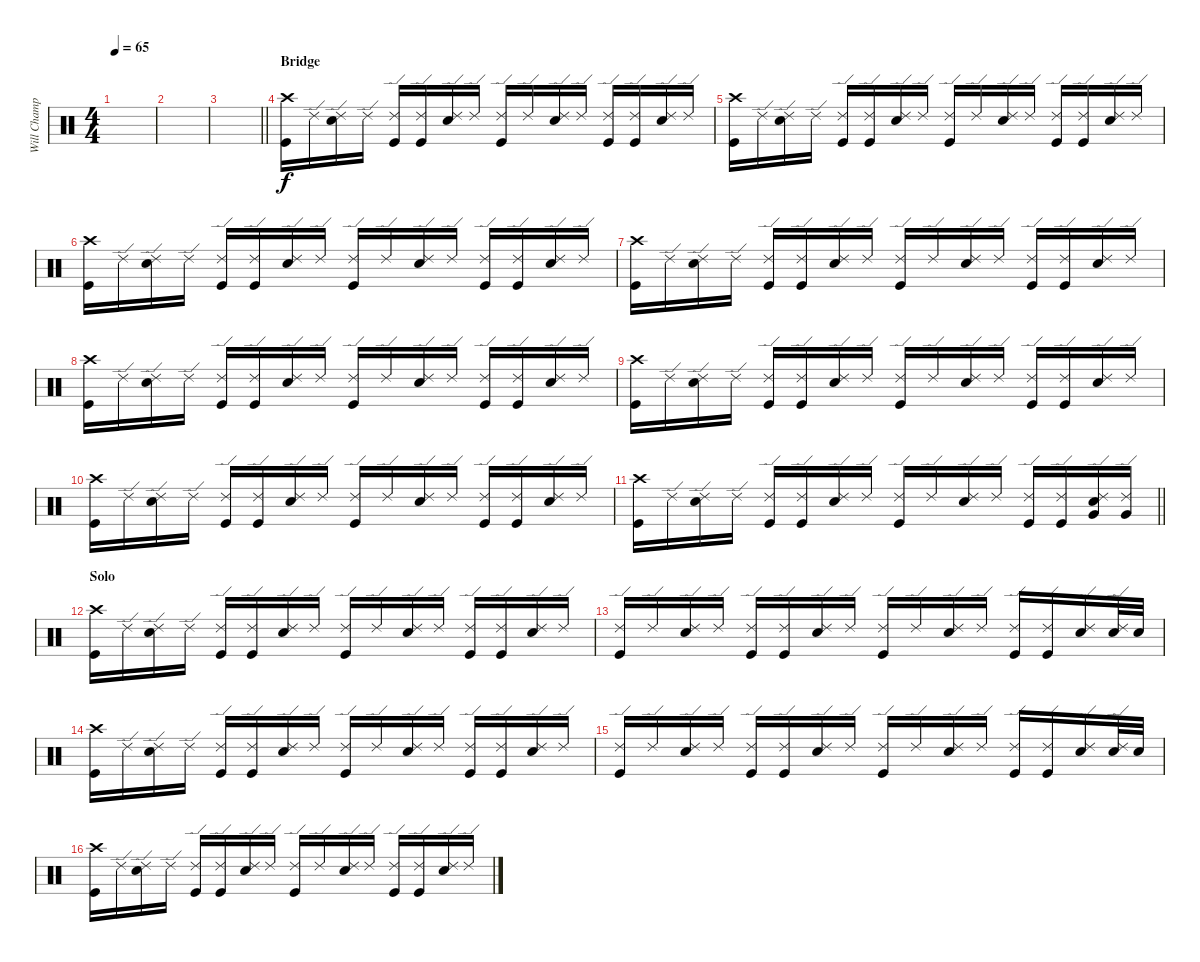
\track ("Will Champion-Drums" "Will Champ") {instrument percussion}
\staff {score}
\articulation defaults
\ts (4 4)
\tempo 65
\clef neutral
\ks c
|
|
\barLineRight lightlight
|
\section ("" "Bridge")
("Crash high (hit)" "Kick (hit)").16 "Ride (edge) 2".16 ("Ride (edge) 2" "Snare (hit) 2").16 "Ride (edge) 2".16 ("Ride (edge) 2" "Kick (hit)").16 ("Ride (edge) 2" "Kick (hit)").16 ("Ride (edge) 2" "Snare (hit) 2").16 "Ride (edge) 2".16 ("Ride (edge) 2" "Kick (hit)").16 "Ride (edge) 2".16 ("Ride (edge) 2" "Snare (hit) 2").16 "Ride (edge) 2".16 ("Ride (edge) 2" "Kick (hit)").16 ("Ride (edge) 2" "Kick (hit)").16 ("Ride (edge) 2" "Snare (hit) 2").16 "Ride (edge) 2".16 |
("Crash high (hit)" "Kick (hit)").16 "Ride (edge) 2".16 ("Ride (edge) 2" "Snare (hit) 2").16 "Ride (edge) 2".16 ("Ride (edge) 2" "Kick (hit)").16 ("Ride (edge) 2" "Kick (hit)").16 ("Ride (edge) 2" "Snare (hit) 2").16 "Ride (edge) 2".16 ("Ride (edge) 2" "Kick (hit)").16 "Ride (edge) 2".16 ("Ride (edge) 2" "Snare (hit) 2").16 "Ride (edge) 2".16 ("Ride (edge) 2" "Kick (hit)").16 ("Ride (edge) 2" "Kick (hit)").16 ("Ride (edge) 2" "Snare (hit) 2").16 "Ride (edge) 2".16 |
("Crash high (hit)" "Kick (hit)").16 "Ride (edge) 2".16 ("Ride (edge) 2" "Snare (hit) 2").16 "Ride (edge) 2".16 ("Ride (edge) 2" "Kick (hit)").16 ("Ride (edge) 2" "Kick (hit)").16 ("Ride (edge) 2" "Snare (hit) 2").16 "Ride (edge) 2".16 ("Ride (edge) 2" "Kick (hit)").16 "Ride (edge) 2".16 ("Ride (edge) 2" "Snare (hit) 2").16 "Ride (edge) 2".16 ("Ride (edge) 2" "Kick (hit)").16 ("Ride (edge) 2" "Kick (hit)").16 ("Ride (edge) 2" "Snare (hit) 2").16 "Ride (edge) 2".16 |
("Crash high (hit)" "Kick (hit)").16 "Ride (edge) 2".16 ("Ride (edge) 2" "Snare (hit) 2").16 "Ride (edge) 2".16 ("Ride (edge) 2" "Kick (hit)").16 ("Ride (edge) 2" "Kick (hit)").16 ("Ride (edge) 2" "Snare (hit) 2").16 "Ride (edge) 2".16 ("Ride (edge) 2" "Kick (hit)").16 "Ride (edge) 2".16 ("Ride (edge) 2" "Snare (hit) 2").16 "Ride (edge) 2".16 ("Ride (edge) 2" "Kick (hit)").16 ("Ride (edge) 2" "Kick (hit)").16 ("Ride (edge) 2" "Snare (hit) 2").16 "Ride (edge) 2".16 |
("Crash high (hit)" "Kick (hit)").16 "Ride (edge) 2".16 ("Ride (edge) 2" "Snare (hit) 2").16 "Ride (edge) 2".16 ("Ride (edge) 2" "Kick (hit)").16 ("Ride (edge) 2" "Kick (hit)").16 ("Ride (edge) 2" "Snare (hit) 2").16 "Ride (edge) 2".16 ("Ride (edge) 2" "Kick (hit)").16 "Ride (edge) 2".16 ("Ride (edge) 2" "Snare (hit) 2").16 "Ride (edge) 2".16 ("Ride (edge) 2" "Kick (hit)").16 ("Ride (edge) 2" "Kick (hit)").16 ("Ride (edge) 2" "Snare (hit) 2").16 "Ride (edge) 2".16 |
("Crash high (hit)" "Kick (hit)").16 "Ride (edge) 2".16 ("Ride (edge) 2" "Snare (hit) 2").16 "Ride (edge) 2".16 ("Ride (edge) 2" "Kick (hit)").16 ("Ride (edge) 2" "Kick (hit)").16 ("Ride (edge) 2" "Snare (hit) 2").16 "Ride (edge) 2".16 ("Ride (edge) 2" "Kick (hit)").16 "Ride (edge) 2".16 ("Ride (edge) 2" "Snare (hit) 2").16 "Ride (edge) 2".16 ("Ride (edge) 2" "Kick (hit)").16 ("Ride (edge) 2" "Kick (hit)").16 ("Ride (edge) 2" "Snare (hit) 2").16 "Ride (edge) 2".16 |
("Crash high (hit)" "Kick (hit)").16 "Ride (edge) 2".16 ("Ride (edge) 2" "Snare (hit) 2").16 "Ride (edge) 2".16 ("Ride (edge) 2" "Kick (hit)").16 ("Ride (edge) 2" "Kick (hit)").16 ("Ride (edge) 2" "Snare (hit) 2").16 "Ride (edge) 2".16 ("Ride (edge) 2" "Kick (hit)").16 "Ride (edge) 2".16 ("Ride (edge) 2" "Snare (hit) 2").16 "Ride (edge) 2".16 ("Ride (edge) 2" "Kick (hit)").16 ("Ride (edge) 2" "Kick (hit)").16 ("Ride (edge) 2" "Snare (hit) 2").16 "Ride (edge) 2".16 |
\barLineRight lightlight
("Crash high (hit)" "Kick (hit)").16 "Ride (edge) 2".16 ("Ride (edge) 2" "Snare (hit) 2").16 "Ride (edge) 2".16 ("Ride (edge) 2" "Kick (hit)").16 ("Ride (edge) 2" "Kick (hit)").16 ("Ride (edge) 2" "Snare (hit) 2").16 "Ride (edge) 2".16 ("Ride (edge) 2" "Kick (hit)").16 "Ride (edge) 2".16 ("Ride (edge) 2" "Snare (hit) 2").16 "Ride (edge) 2".16 ("Ride (edge) 2" "Kick (hit)").16 ("Ride (edge) 2" "Kick (hit)").16 ("Ride (edge) 2" "Snare (hit) 2" "Very Low Tom (hit)").16 ("Ride (edge) 2" "Very Low Tom (hit)").16 |
\section ("" "Solo")
("Crash high (hit)" "Kick (hit)").16 "Ride (edge) 2".16 ("Ride (edge) 2" "Snare (hit) 2").16 "Ride (edge) 2".16 ("Ride (edge) 2" "Kick (hit)").16 ("Ride (edge) 2" "Kick (hit)").16 ("Ride (edge) 2" "Snare (hit) 2").16 "Ride (edge) 2".16 ("Ride (edge) 2" "Kick (hit)").16 "Ride (edge) 2".16 ("Ride (edge) 2" "Snare (hit) 2").16 "Ride (edge) 2".16 ("Ride (edge) 2" "Kick (hit)").16 ("Ride (edge) 2" "Kick (hit)").16 ("Ride (edge) 2" "Snare (hit) 2").16 "Ride (edge) 2".16 |
("Ride (edge) 2" "Kick (hit)").16 "Ride (edge) 2".16 ("Ride (edge) 2" "Snare (hit) 2").16 "Ride (edge) 2".16 ("Ride (edge) 2" "Kick (hit)").16 ("Ride (edge) 2" "Kick (hit)").16 ("Ride (edge) 2" "Snare (hit) 2").16 "Ride (edge) 2".16 ("Ride (edge) 2" "Kick (hit)").16 "Ride (edge) 2".16 ("Ride (edge) 2" "Snare (hit) 2").16 "Ride (edge) 2".16 ("Ride (edge) 2" "Kick (hit)").16 ("Ride (edge) 2" "Kick (hit)").16 ("Ride (edge) 2" "Snare (hit) 2").16 ("Ride (edge) 2" "Snare (hit) 2").32 "Snare (hit) 2".32 |
("Crash high (hit)" "Kick (hit)").16 "Ride (edge) 2".16 ("Ride (edge) 2" "Snare (hit) 2").16 "Ride (edge) 2".16 ("Ride (edge) 2" "Kick (hit)").16 ("Ride (edge) 2" "Kick (hit)").16 ("Ride (edge) 2" "Snare (hit) 2").16 "Ride (edge) 2".16 ("Ride (edge) 2" "Kick (hit)").16 "Ride (edge) 2".16 ("Ride (edge) 2" "Snare (hit) 2").16 "Ride (edge) 2".16 ("Ride (edge) 2" "Kick (hit)").16 ("Ride (edge) 2" "Kick (hit)").16 ("Ride (edge) 2" "Snare (hit) 2").16 "Ride (edge) 2".16 |
("Ride (edge) 2" "Kick (hit)").16 "Ride (edge) 2".16 ("Ride (edge) 2" "Snare (hit) 2").16 "Ride (edge) 2".16 ("Ride (edge) 2" "Kick (hit)").16 ("Ride (edge) 2" "Kick (hit)").16 ("Ride (edge) 2" "Snare (hit) 2").16 "Ride (edge) 2".16 ("Ride (edge) 2" "Kick (hit)").16 "Ride (edge) 2".16 ("Ride (edge) 2" "Snare (hit) 2").16 "Ride (edge) 2".16 ("Ride (edge) 2" "Kick (hit)").16 ("Ride (edge) 2" "Kick (hit)").16 ("Ride (edge) 2" "Snare (hit) 2").16 ("Ride (edge) 2" "Snare (hit) 2").32 "Snare (hit) 2".32 |
("Crash high (hit)" "Kick (hit)").16 "Ride (edge) 2".16 ("Ride (edge) 2" "Snare (hit) 2").16 "Ride (edge) 2".16 ("Ride (edge) 2" "Kick (hit)").16 ("Ride (edge) 2" "Kick (hit)").16 ("Ride (edge) 2" "Snare (hit) 2").16 "Ride (edge) 2".16 ("Ride (edge) 2" "Kick (hit)").16 "Ride (edge) 2".16 ("Ride (edge) 2" "Snare (hit) 2").16 "Ride (edge) 2".16 ("Ride (edge) 2" "Kick (hit)").16 ("Ride (edge) 2" "Kick (hit)").16 ("Ride (edge) 2" "Snare (hit) 2").16 "Ride (edge) 2".16
